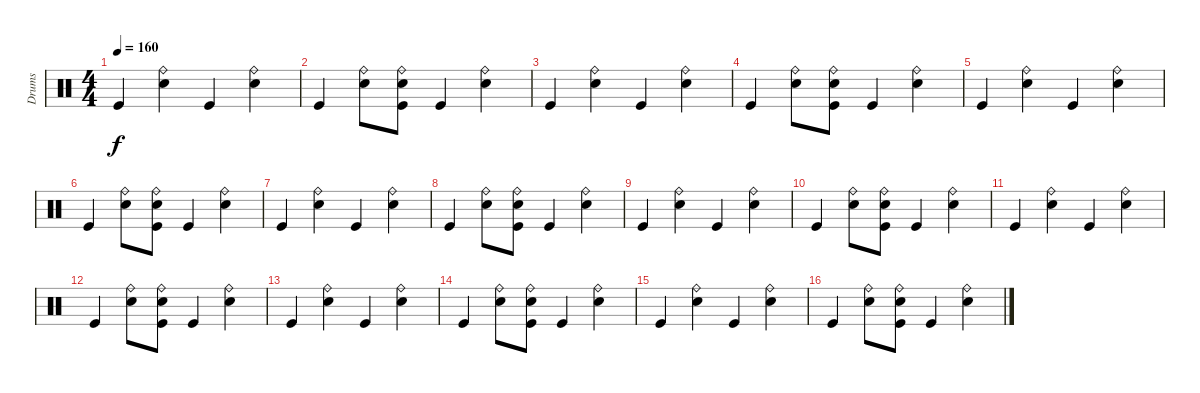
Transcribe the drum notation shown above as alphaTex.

\track ("Drums" "Drums") {instrument percussion}
\staff {score}
\articulation defaults
\ts (4 4)
\tempo 160
\clef neutral
\ks c "Kick (hit)".4{dy f}
("Snare (hit) 2" "Ride (bell)").4 "Kick (hit)".4 ("Snare (hit) 2" "Ride (bell)").4 |
"Kick (hit)".4 ("Snare (hit) 2" "Ride (bell)").8 ("Snare (hit) 2" "Ride (bell)" "Kick (hit)").8 "Kick (hit)".4 ("Snare (hit) 2" "Ride (bell)").4 |
"Kick (hit)".4 ("Snare (hit) 2" "Ride (bell)").4 "Kick (hit)".4 ("Snare (hit) 2" "Ride (bell)").4 |
"Kick (hit)".4 ("Snare (hit) 2" "Ride (bell)").8 ("Snare (hit) 2" "Ride (bell)" "Kick (hit)").8 "Kick (hit)".4 ("Snare (hit) 2" "Ride (bell)").4 |
"Kick (hit)".4 ("Snare (hit) 2" "Ride (bell)").4 "Kick (hit)".4 ("Snare (hit) 2" "Ride (bell)").4 |
"Kick (hit)".4 ("Snare (hit) 2" "Ride (bell)").8 ("Snare (hit) 2" "Ride (bell)" "Kick (hit)").8 "Kick (hit)".4 ("Snare (hit) 2" "Ride (bell)").4 |
"Kick (hit)".4 ("Snare (hit) 2" "Ride (bell)").4 "Kick (hit)".4 ("Snare (hit) 2" "Ride (bell)").4 |
"Kick (hit)".4 ("Snare (hit) 2" "Ride (bell)").8 ("Snare (hit) 2" "Ride (bell)" "Kick (hit)").8 "Kick (hit)".4 ("Snare (hit) 2" "Ride (bell)").4 |
"Kick (hit)".4 ("Snare (hit) 2" "Ride (bell)").4 "Kick (hit)".4 ("Snare (hit) 2" "Ride (bell)").4 |
"Kick (hit)".4 ("Snare (hit) 2" "Ride (bell)").8 ("Snare (hit) 2" "Ride (bell)" "Kick (hit)").8 "Kick (hit)".4 ("Snare (hit) 2" "Ride (bell)").4 |
"Kick (hit)".4 ("Snare (hit) 2" "Ride (bell)").4 "Kick (hit)".4 ("Snare (hit) 2" "Ride (bell)").4 |
"Kick (hit)".4 ("Snare (hit) 2" "Ride (bell)").8 ("Snare (hit) 2" "Ride (bell)" "Kick (hit)").8 "Kick (hit)".4 ("Snare (hit) 2" "Ride (bell)").4 |
"Kick (hit)".4 ("Snare (hit) 2" "Ride (bell)").4 "Kick (hit)".4 ("Snare (hit) 2" "Ride (bell)").4 |
"Kick (hit)".4 ("Snare (hit) 2" "Ride (bell)").8 ("Snare (hit) 2" "Ride (bell)" "Kick (hit)").8 "Kick (hit)".4 ("Snare (hit) 2" "Ride (bell)").4 |
"Kick (hit)".4 ("Snare (hit) 2" "Ride (bell)").4 "Kick (hit)".4 ("Snare (hit) 2" "Ride (bell)").4 |
"Kick (hit)".4 ("Snare (hit) 2" "Ride (bell)").8 ("Snare (hit) 2" "Ride (bell)" "Kick (hit)").8 "Kick (hit)".4 ("Snare (hit) 2" "Ride (bell)").4
